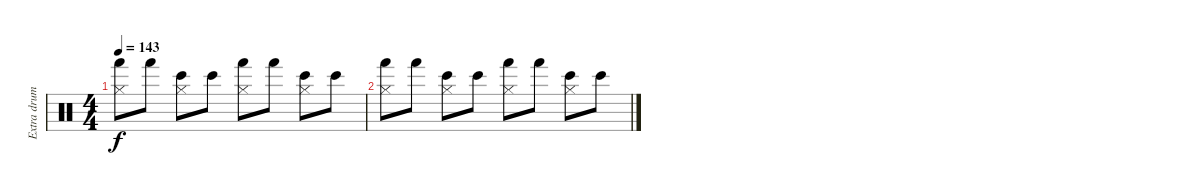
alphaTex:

\track ("Extra drums" "Extra drum") {instrument percussion}
\staff {score}
\articulation defaults
\ts (4 4)
\tempo 143
\clef neutral
\ks c
("Hi-Hat (closed)" "Hand (hit)").8{dy f} "Hand (hit)".8 ("Hi-Hat (closed)" "Bongo High (hit)").8 "Bongo High (hit)".8 ("Hi-Hat (closed)" "Hand (hit)").8 "Hand (hit)".8 ("Hi-Hat (closed)" "Bongo High (hit)").8 "Bongo High (hit)".8 |
("Hi-Hat (closed)" "Hand (hit)").8 "Hand (hit)".8 ("Hi-Hat (closed)" "Bongo High (hit)").8 "Bongo High (hit)".8 ("Hi-Hat (closed)" "Hand (hit)").8 "Hand (hit)".8 ("Hi-Hat (closed)" "Bongo High (hit)").8 "Bongo High (hit)".8
